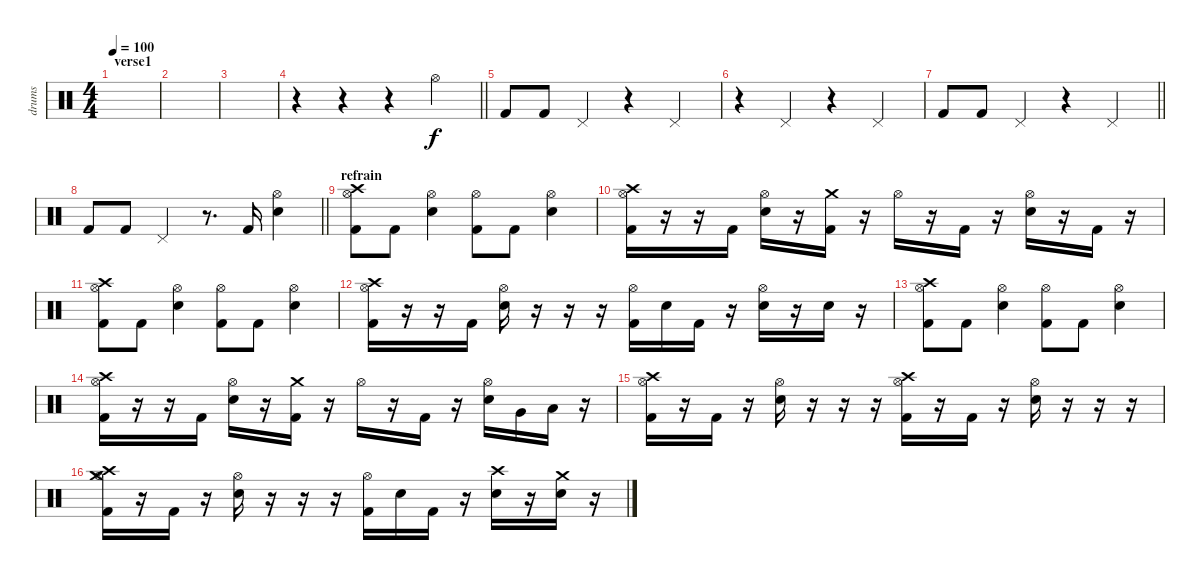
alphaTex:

\track ("drums" "drums") {instrument percussion}
\staff {score}
\articulation defaults
\ts (4 4)
\section ("" "verse1 ")
\tempo 100
\clef neutral
\ks c
|
|
|
\barLineRight lightlight
r.4 r.4 r.4 "Hi-Hat (open)".4{dy f} |
"Kick (hit) 2".8 "Kick (hit) 2".8 "Pedal Hi-Hat (hit)".4 r.4 "Pedal Hi-Hat (hit)".4 |
r.4 "Pedal Hi-Hat (hit)".4 r.4 "Pedal Hi-Hat (hit)".4 |
\barLineRight lightlight "Kick (hit) 2".8 "Kick (hit) 2".8 "Pedal Hi-Hat (hit)".4
r.4 "Pedal Hi-Hat (hit)".4 |
\barLineRight lightlight "Kick (hit) 2".8 "Kick (hit) 2".8 "Pedal Hi-Hat (hit)".4
r.8{d} "Kick (hit) 2".16 ("Hi-Hat (open)" "Electric Snare (hit)").4 |
\section ("" "refrain")
("Hi-Hat (open)" "Crash high (hit)" "Kick (hit) 2").8 "Kick (hit) 2".8 ("Hi-Hat (open)" "Electric Snare (hit)").4 ("Hi-Hat (open)" "Kick (hit) 2").8 "Kick (hit) 2".8 ("Hi-Hat (open)" "Electric Snare (hit)").4 |
("Crash high (hit)" "Hi-Hat (open)" "Kick (hit) 2").16 r.16 r.16 "Kick (hit) 2".16 ("Hi-Hat (open)" "Electric Snare (hit)").16 r.16 ("Crash medium (hit)" "Kick (hit) 2").16 r.16 "Hi-Hat (open)".16 r.16 "Kick (hit) 2".16 r.16 ("Hi-Hat (open)" "Electric Snare (hit)").16 r.16 "Kick (hit) 2".16 r.16 |
("Hi-Hat (open)" "Crash high (hit)" "Kick (hit) 2").8 "Kick (hit) 2".8 ("Hi-Hat (open)" "Electric Snare (hit)").4 ("Hi-Hat (open)" "Kick (hit) 2").8 "Kick (hit) 2".8 ("Hi-Hat (open)" "Electric Snare (hit)").4 |
("Crash high (hit)" "Hi-Hat (open)" "Kick (hit) 2").16 r.16 r.16 "Kick (hit) 2".16 ("Hi-Hat (open)" "Electric Snare (hit)").16 r.16 r.16 r.16 ("Hi-Hat (open)" "Kick (hit) 2").16 "Electric Snare (hit)".16 "Kick (hit) 2".16 r.16 ("Hi-Hat (open)" "Electric Snare (hit)").16 r.16 "Electric Snare (hit)".16 r.16 |
("Hi-Hat (open)" "Crash high (hit)" "Kick (hit) 2").8 "Kick (hit) 2".8 ("Hi-Hat (open)" "Electric Snare (hit)").4 ("Hi-Hat (open)" "Kick (hit) 2").8 "Kick (hit) 2".8 ("Hi-Hat (open)" "Electric Snare (hit)").4 |
("Crash high (hit)" "Hi-Hat (open)" "Kick (hit) 2").16 r.16 r.16 "Kick (hit) 2".16 ("Hi-Hat (open)" "Electric Snare (hit)").16 r.16 ("Crash medium (hit)" "Kick (hit) 2").16 r.16 "Hi-Hat (open)".16 r.16 "Kick (hit) 2".16 r.16 ("Hi-Hat (open)" "Electric Snare (hit)").16 "Very Low Tom (hit)".16 "Low Floor Tom (hit)".16 r.16 |
("Crash high (hit)" "Hi-Hat (open)" "Kick (hit) 2").16 r.16 "Kick (hit) 2".16 r.16 ("Hi-Hat (open)" "Electric Snare (hit)").16 r.16 r.16 r.16 ("Crash high (hit)" "Hi-Hat (open)" "Kick (hit) 2").16 r.16 "Kick (hit) 2".16 r.16 ("Hi-Hat (open)" "Electric Snare (hit)").16 r.16 r.16 r.16 |
("Crash medium (hit)" "Crash high (hit)" "Hi-Hat (open)" "Kick (hit) 2").16 r.16 "Kick (hit) 2".16 r.16 ("Hi-Hat (open)" "Electric Snare (hit)").16 r.16 r.16 r.16 ("Hi-Hat (open)" "Kick (hit) 2").16 "Electric Snare (hit)".16 "Kick (hit) 2".16 r.16 ("Crash high (hit)" "Electric Snare (hit)").16 r.16 ("Crash medium (hit)" "Electric Snare (hit)").16 r.16
